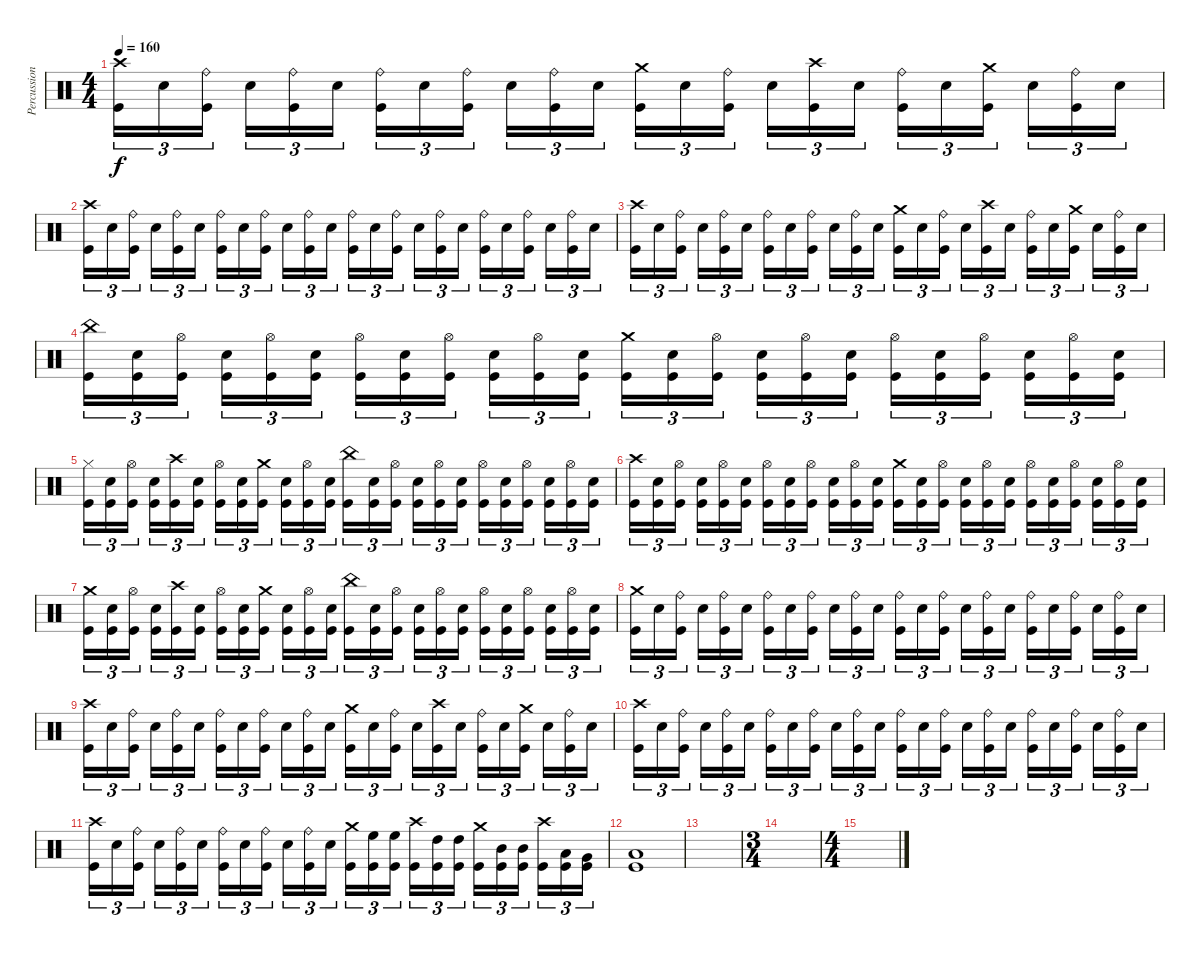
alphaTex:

\track ("Percussion" "Percussion") {instrument percussion}
\staff {score}
\articulation defaults
\ts (4 4)
\tempo 160
\clef neutral
\ks c
("Crash high (hit)" "Kick (hit)").16{tu (3 2) dy f} "Snare (hit) 2".16{tu (3 2)} ("Ride (bell)" "Kick (hit)").16{tu (3 2) beam splitsecondary} "Snare (hit) 2".16{tu (3 2)} ("Ride (bell)" "Kick (hit)").16{tu (3 2)} "Snare (hit) 2".16{tu (3 2)} ("Ride (bell)" "Kick (hit)").16{tu (3 2)} "Snare (hit) 2".16{tu (3 2)} ("Ride (bell)" "Kick (hit)").16{tu (3 2) beam splitsecondary} "Snare (hit) 2".16{tu (3 2)} ("Ride (bell)" "Kick (hit)").16{tu (3 2)} "Snare (hit) 2".16{tu (3 2)} ("Crash medium (hit)" "Kick (hit)").16{tu (3 2)} "Snare (hit) 2".16{tu (3 2)} ("Ride (bell)" "Kick (hit)").16{tu (3 2) beam splitsecondary} "Snare (hit) 2".16{tu (3 2)} ("Crash high (hit)" "Kick (hit)").16{tu (3 2)} "Snare (hit) 2".16{tu (3 2)} ("Ride (bell)" "Kick (hit)").16{tu (3 2)} "Snare (hit) 2".16{tu (3 2)} ("Crash medium (hit)" "Kick (hit)").16{tu (3 2) beam splitsecondary} "Snare (hit) 2".16{tu (3 2)} ("Ride (bell)" "Kick (hit)").16{tu (3 2)} "Snare (hit) 2".16{tu (3 2)} |
("Crash high (hit)" "Kick (hit)").16{tu (3 2)} "Snare (hit) 2".16{tu (3 2)} ("Ride (bell)" "Kick (hit)").16{tu (3 2) beam splitsecondary} "Snare (hit) 2".16{tu (3 2)} ("Ride (bell)" "Kick (hit)").16{tu (3 2)} "Snare (hit) 2".16{tu (3 2)} ("Ride (bell)" "Kick (hit)").16{tu (3 2)} "Snare (hit) 2".16{tu (3 2)} ("Ride (bell)" "Kick (hit)").16{tu (3 2) beam splitsecondary} "Snare (hit) 2".16{tu (3 2)} ("Ride (bell)" "Kick (hit)").16{tu (3 2)} "Snare (hit) 2".16{tu (3 2)} ("Ride (bell)" "Kick (hit)").16{tu (3 2)} "Snare (hit) 2".16{tu (3 2)} ("Ride (bell)" "Kick (hit)").16{tu (3 2) beam splitsecondary} "Snare (hit) 2".16{tu (3 2)} ("Ride (bell)" "Kick (hit)").16{tu (3 2)} "Snare (hit) 2".16{tu (3 2)} ("Ride (bell)" "Kick (hit)").16{tu (3 2)} "Snare (hit) 2".16{tu (3 2)} ("Ride (bell)" "Kick (hit)").16{tu (3 2) beam splitsecondary} "Snare (hit) 2".16{tu (3 2)} ("Ride (bell)" "Kick (hit)").16{tu (3 2)} "Snare (hit) 2".16{tu (3 2)} |
("Crash high (hit)" "Kick (hit)").16{tu (3 2)} "Snare (hit) 2".16{tu (3 2)} ("Ride (bell)" "Kick (hit)").16{tu (3 2) beam splitsecondary} "Snare (hit) 2".16{tu (3 2)} ("Ride (bell)" "Kick (hit)").16{tu (3 2)} "Snare (hit) 2".16{tu (3 2)} ("Ride (bell)" "Kick (hit)").16{tu (3 2)} "Snare (hit) 2".16{tu (3 2)} ("Ride (bell)" "Kick (hit)").16{tu (3 2) beam splitsecondary} "Snare (hit) 2".16{tu (3 2)} ("Ride (bell)" "Kick (hit)").16{tu (3 2)} "Snare (hit) 2".16{tu (3 2)} ("Crash medium (hit)" "Kick (hit)").16{tu (3 2)} "Snare (hit) 2".16{tu (3 2)} ("Ride (bell)" "Kick (hit)").16{tu (3 2) beam splitsecondary} "Snare (hit) 2".16{tu (3 2)} ("Crash high (hit)" "Kick (hit)").16{tu (3 2)} "Snare (hit) 2".16{tu (3 2)} ("Ride (bell)" "Kick (hit)").16{tu (3 2)} "Snare (hit) 2".16{tu (3 2)} ("Crash medium (hit)" "Kick (hit)").16{tu (3 2) beam splitsecondary} "Snare (hit) 2".16{tu (3 2)} ("Ride (bell)" "Kick (hit)").16{tu (3 2)} "Snare (hit) 2".16{tu (3 2)} |
("China (hit)" "Kick (hit)").16{tu (3 2)} ("Snare (hit) 2" "Kick (hit)").16{tu (3 2)} ("Hi-Hat (open)" "Kick (hit)").16{tu (3 2) beam splitsecondary} ("Snare (hit) 2" "Kick (hit)").16{tu (3 2)} ("Hi-Hat (open)" "Kick (hit)").16{tu (3 2)} ("Snare (hit) 2" "Kick (hit)").16{tu (3 2)} ("Hi-Hat (open)" "Kick (hit)").16{tu (3 2)} ("Snare (hit) 2" "Kick (hit)").16{tu (3 2)} ("Hi-Hat (open)" "Kick (hit)").16{tu (3 2) beam splitsecondary} ("Snare (hit) 2" "Kick (hit)").16{tu (3 2)} ("Hi-Hat (open)" "Kick (hit)").16{tu (3 2)} ("Snare (hit) 2" "Kick (hit)").16{tu (3 2)} ("Crash medium (hit)" "Kick (hit)").16{tu (3 2)} ("Snare (hit) 2" "Kick (hit)").16{tu (3 2)} ("Hi-Hat (open)" "Kick (hit)").16{tu (3 2) beam splitsecondary} ("Snare (hit) 2" "Kick (hit)").16{tu (3 2)} ("Hi-Hat (open)" "Kick (hit)").16{tu (3 2)} ("Snare (hit) 2" "Kick (hit)").16{tu (3 2)} ("Hi-Hat (open)" "Kick (hit)").16{tu (3 2)} ("Snare (hit) 2" "Kick (hit)").16{tu (3 2)} ("Hi-Hat (open)" "Kick (hit)").16{tu (3 2) beam splitsecondary} ("Snare (hit) 2" "Kick (hit)").16{tu (3 2)} ("Hi-Hat (open)" "Kick (hit)").16{tu (3 2)} ("Snare (hit) 2" "Kick (hit)").16{tu (3 2)} |
("Hi-Hat (closed)" "Kick (hit)").16{tu (3 2)} ("Snare (hit) 2" "Kick (hit)").16{tu (3 2)} ("Hi-Hat (open)" "Kick (hit)").16{tu (3 2) beam splitsecondary} ("Snare (hit) 2" "Kick (hit)").16{tu (3 2)} ("Crash high (hit)" "Kick (hit)").16{tu (3 2)} ("Snare (hit) 2" "Kick (hit)").16{tu (3 2)} ("Hi-Hat (open)" "Kick (hit)").16{tu (3 2)} ("Snare (hit) 2" "Kick (hit)").16{tu (3 2)} ("Crash medium (hit)" "Kick (hit)").16{tu (3 2) beam splitsecondary} ("Snare (hit) 2" "Kick (hit)").16{tu (3 2)} ("Hi-Hat (open)" "Kick (hit)").16{tu (3 2)} ("Snare (hit) 2" "Kick (hit)").16{tu (3 2)} ("China (hit)" "Kick (hit)").16{tu (3 2)} ("Snare (hit) 2" "Kick (hit)").16{tu (3 2)} ("Hi-Hat (open)" "Kick (hit)").16{tu (3 2) beam splitsecondary} ("Snare (hit) 2" "Kick (hit)").16{tu (3 2)} ("Hi-Hat (open)" "Kick (hit)").16{tu (3 2)} ("Snare (hit) 2" "Kick (hit)").16{tu (3 2)} ("Hi-Hat (open)" "Kick (hit)").16{tu (3 2)} ("Snare (hit) 2" "Kick (hit)").16{tu (3 2)} ("Hi-Hat (open)" "Kick (hit)").16{tu (3 2) beam splitsecondary} ("Snare (hit) 2" "Kick (hit)").16{tu (3 2)} ("Hi-Hat (open)" "Kick (hit)").16{tu (3 2)} ("Snare (hit) 2" "Kick (hit)").16{tu (3 2)} |
("Crash high (hit)" "Kick (hit)").16{tu (3 2)} ("Snare (hit) 2" "Kick (hit)").16{tu (3 2)} ("Hi-Hat (open)" "Kick (hit)").16{tu (3 2) beam splitsecondary} ("Snare (hit) 2" "Kick (hit)").16{tu (3 2)} ("Hi-Hat (open)" "Kick (hit)").16{tu (3 2)} ("Snare (hit) 2" "Kick (hit)").16{tu (3 2)} ("Hi-Hat (open)" "Kick (hit)").16{tu (3 2)} ("Snare (hit) 2" "Kick (hit)").16{tu (3 2)} ("Hi-Hat (open)" "Kick (hit)").16{tu (3 2) beam splitsecondary} ("Snare (hit) 2" "Kick (hit)").16{tu (3 2)} ("Hi-Hat (open)" "Kick (hit)").16{tu (3 2)} ("Snare (hit) 2" "Kick (hit)").16{tu (3 2)} ("Crash medium (hit)" "Kick (hit)").16{tu (3 2)} ("Snare (hit) 2" "Kick (hit)").16{tu (3 2)} ("Hi-Hat (open)" "Kick (hit)").16{tu (3 2) beam splitsecondary} ("Snare (hit) 2" "Kick (hit)").16{tu (3 2)} ("Hi-Hat (open)" "Kick (hit)").16{tu (3 2)} ("Snare (hit) 2" "Kick (hit)").16{tu (3 2)} ("Hi-Hat (open)" "Kick (hit)").16{tu (3 2)} ("Snare (hit) 2" "Kick (hit)").16{tu (3 2)} ("Hi-Hat (open)" "Kick (hit)").16{tu (3 2) beam splitsecondary} ("Snare (hit) 2" "Kick (hit)").16{tu (3 2)} ("Hi-Hat (open)" "Kick (hit)").16{tu (3 2)} ("Snare (hit) 2" "Kick (hit)").16{tu (3 2)} |
("Crash medium (hit)" "Kick (hit)").16{tu (3 2)} ("Snare (hit) 2" "Kick (hit)").16{tu (3 2)} ("Hi-Hat (open)" "Kick (hit)").16{tu (3 2) beam splitsecondary} ("Snare (hit) 2" "Kick (hit)").16{tu (3 2)} ("Crash high (hit)" "Kick (hit)").16{tu (3 2)} ("Snare (hit) 2" "Kick (hit)").16{tu (3 2)} ("Hi-Hat (open)" "Kick (hit)").16{tu (3 2)} ("Snare (hit) 2" "Kick (hit)").16{tu (3 2)} ("Crash medium (hit)" "Kick (hit)").16{tu (3 2) beam splitsecondary} ("Snare (hit) 2" "Kick (hit)").16{tu (3 2)} ("Hi-Hat (open)" "Kick (hit)").16{tu (3 2)} ("Snare (hit) 2" "Kick (hit)").16{tu (3 2)} ("China (hit)" "Kick (hit)").16{tu (3 2)} ("Snare (hit) 2" "Kick (hit)").16{tu (3 2)} ("Hi-Hat (open)" "Kick (hit)").16{tu (3 2) beam splitsecondary} ("Snare (hit) 2" "Kick (hit)").16{tu (3 2)} ("Hi-Hat (open)" "Kick (hit)").16{tu (3 2)} ("Snare (hit) 2" "Kick (hit)").16{tu (3 2)} ("Hi-Hat (open)" "Kick (hit)").16{tu (3 2)} ("Snare (hit) 2" "Kick (hit)").16{tu (3 2)} ("Hi-Hat (open)" "Kick (hit)").16{tu (3 2) beam splitsecondary} ("Snare (hit) 2" "Kick (hit)").16{tu (3 2)} ("Hi-Hat (open)" "Kick (hit)").16{tu (3 2)} ("Snare (hit) 2" "Kick (hit)").16{tu (3 2)} |
("Crash medium (hit)" "Kick (hit)").16{tu (3 2)} "Snare (hit) 2".16{tu (3 2)} ("Ride (bell)" "Kick (hit)").16{tu (3 2) beam splitsecondary} "Snare (hit) 2".16{tu (3 2)} ("Ride (bell)" "Kick (hit)").16{tu (3 2)} "Snare (hit) 2".16{tu (3 2)} ("Ride (bell)" "Kick (hit)").16{tu (3 2)} "Snare (hit) 2".16{tu (3 2)} ("Ride (bell)" "Kick (hit)").16{tu (3 2) beam splitsecondary} "Snare (hit) 2".16{tu (3 2)} ("Ride (bell)" "Kick (hit)").16{tu (3 2)} "Snare (hit) 2".16{tu (3 2)} ("Ride (bell)" "Kick (hit)").16{tu (3 2)} "Snare (hit) 2".16{tu (3 2)} ("Ride (bell)" "Kick (hit)").16{tu (3 2) beam splitsecondary} "Snare (hit) 2".16{tu (3 2)} ("Ride (bell)" "Kick (hit)").16{tu (3 2)} "Snare (hit) 2".16{tu (3 2)} ("Ride (bell)" "Kick (hit)").16{tu (3 2)} "Snare (hit) 2".16{tu (3 2)} ("Ride (bell)" "Kick (hit)").16{tu (3 2) beam splitsecondary} "Snare (hit) 2".16{tu (3 2)} ("Ride (bell)" "Kick (hit)").16{tu (3 2)} "Snare (hit) 2".16{tu (3 2)} |
("Crash high (hit)" "Kick (hit)").16{tu (3 2)} "Snare (hit) 2".16{tu (3 2)} ("Ride (bell)" "Kick (hit)").16{tu (3 2) beam splitsecondary} "Snare (hit) 2".16{tu (3 2)} ("Ride (bell)" "Kick (hit)").16{tu (3 2)} "Snare (hit) 2".16{tu (3 2)} ("Ride (bell)" "Kick (hit)").16{tu (3 2)} "Snare (hit) 2".16{tu (3 2)} ("Ride (bell)" "Kick (hit)").16{tu (3 2) beam splitsecondary} "Snare (hit) 2".16{tu (3 2)} ("Ride (bell)" "Kick (hit)").16{tu (3 2)} "Snare (hit) 2".16{tu (3 2)} ("Crash medium (hit)" "Kick (hit)").16{tu (3 2)} "Snare (hit) 2".16{tu (3 2)} ("Ride (bell)" "Kick (hit)").16{tu (3 2) beam splitsecondary} "Snare (hit) 2".16{tu (3 2)} ("Crash high (hit)" "Kick (hit)").16{tu (3 2)} "Snare (hit) 2".16{tu (3 2)} ("Ride (bell)" "Kick (hit)").16{tu (3 2)} "Snare (hit) 2".16{tu (3 2)} ("Crash medium (hit)" "Kick (hit)").16{tu (3 2) beam splitsecondary} "Snare (hit) 2".16{tu (3 2)} ("Ride (bell)" "Kick (hit)").16{tu (3 2)} "Snare (hit) 2".16{tu (3 2)} |
("Crash high (hit)" "Kick (hit)").16{tu (3 2)} "Snare (hit) 2".16{tu (3 2)} ("Ride (bell)" "Kick (hit)").16{tu (3 2) beam splitsecondary} "Snare (hit) 2".16{tu (3 2)} ("Ride (bell)" "Kick (hit)").16{tu (3 2)} "Snare (hit) 2".16{tu (3 2)} ("Ride (bell)" "Kick (hit)").16{tu (3 2)} "Snare (hit) 2".16{tu (3 2)} ("Ride (bell)" "Kick (hit)").16{tu (3 2) beam splitsecondary} "Snare (hit) 2".16{tu (3 2)} ("Ride (bell)" "Kick (hit)").16{tu (3 2)} "Snare (hit) 2".16{tu (3 2)} ("Ride (bell)" "Kick (hit)").16{tu (3 2)} "Snare (hit) 2".16{tu (3 2)} ("Ride (bell)" "Kick (hit)").16{tu (3 2) beam splitsecondary} "Snare (hit) 2".16{tu (3 2)} ("Ride (bell)" "Kick (hit)").16{tu (3 2)} "Snare (hit) 2".16{tu (3 2)} ("Ride (bell)" "Kick (hit)").16{tu (3 2)} "Snare (hit) 2".16{tu (3 2)} ("Ride (bell)" "Kick (hit)").16{tu (3 2) beam splitsecondary} "Snare (hit) 2".16{tu (3 2)} ("Ride (bell)" "Kick (hit)").16{tu (3 2)} "Snare (hit) 2".16{tu (3 2)} |
("Crash high (hit)" "Kick (hit)").16{tu (3 2)} "Snare (hit) 2".16{tu (3 2)} ("Ride (bell)" "Kick (hit)").16{tu (3 2) beam splitsecondary} "Snare (hit) 2".16{tu (3 2)} ("Ride (bell)" "Kick (hit)").16{tu (3 2)} "Snare (hit) 2".16{tu (3 2)} ("Ride (bell)" "Kick (hit)").16{tu (3 2)} "Snare (hit) 2".16{tu (3 2)} ("Ride (bell)" "Kick (hit)").16{tu (3 2) beam splitsecondary} "Snare (hit) 2".16{tu (3 2)} ("Ride (bell)" "Kick (hit)").16{tu (3 2)} "Snare (hit) 2".16{tu (3 2)} ("Crash medium (hit)" "Kick (hit)").16{tu (3 2)} ("High Floor Tom (hit)" "Kick (hit)").16{tu (3 2)} ("High Floor Tom (hit)" "Kick (hit)").16{tu (3 2) beam splitsecondary} ("Crash high (hit)" "Kick (hit)").16{tu (3 2)} ("High Tom (hit)" "Kick (hit)").16{tu (3 2)} ("High Tom (hit)" "Kick (hit)").16{tu (3 2)} ("Crash medium (hit)" "Kick (hit)").16{tu (3 2)} ("Mid Tom (hit)" "Kick (hit)").16{tu (3 2)} ("Mid Tom (hit)" "Kick (hit)").16{tu (3 2) beam splitsecondary} ("Crash high (hit)" "Kick (hit)").16{tu (3 2)} ("Low Tom (hit)" "Kick (hit)").16{tu (3 2)} ("Very Low Tom (hit)" "Kick (hit)").16{tu (3 2)} |
("Low Floor Tom (hit)" "Kick (hit)").1 |
|
\ts (3 4)
|
\ts (4 4)
